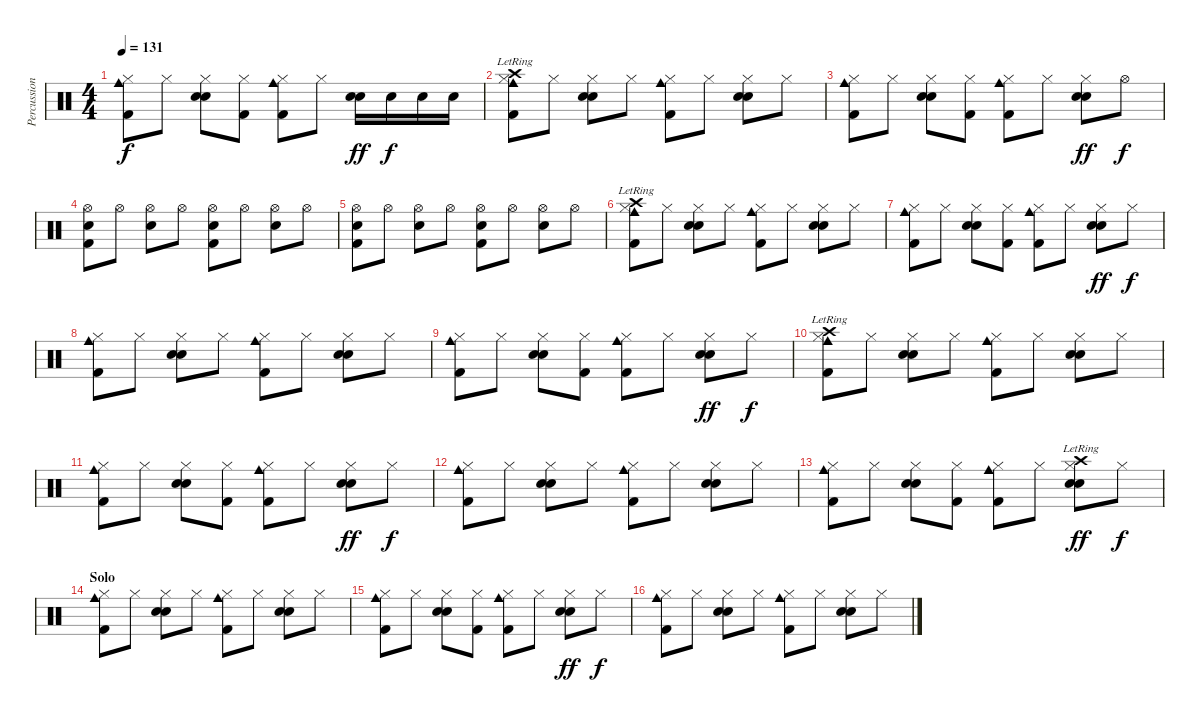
\track ("Percussion" "Percussion") {instrument percussion}
\staff {score}
\articulation defaults
\ts (4 4)
\tempo 131
\clef neutral
\ks c
("Hi-Hat (closed)" "Cowbell medium (hit)" "Kick (hit) 2").8{dy f} "Hi-Hat (closed)".8 ("Hand Clap (hit)" "Hi-Hat (closed)" "Electric Snare (hit)").8 ("Hi-Hat (closed)" "Kick (hit) 2").8 ("Hi-Hat (closed)" "Cowbell medium (hit)" "Kick (hit) 2").8 "Hi-Hat (closed)".8 ("Hand Clap (hit)" "Electric Snare (hit)").16{dy ff} "Electric Snare (hit)".16{dy f} "Electric Snare (hit)".16 "Electric Snare (hit)".16 |
("Crash high (hit)"{lr} "Hi-Hat (closed)" "Cowbell medium (hit)" "Kick (hit) 2").8 "Hi-Hat (closed)".8 ("Hand Clap (hit)" "Hi-Hat (closed)" "Electric Snare (hit)").8 "Hi-Hat (closed)".8 ("Hi-Hat (closed)" "Cowbell medium (hit)" "Kick (hit) 2").8 "Hi-Hat (closed)".8 ("Hand Clap (hit)" "Hi-Hat (closed)" "Electric Snare (hit)").8 "Hi-Hat (closed)".8 |
("Hi-Hat (closed)" "Cowbell medium (hit)" "Kick (hit) 2").8 "Hi-Hat (closed)".8 ("Hand Clap (hit)" "Hi-Hat (closed)" "Electric Snare (hit)").8 ("Hi-Hat (closed)" "Kick (hit) 2").8 ("Hi-Hat (closed)" "Cowbell medium (hit)" "Kick (hit) 2").8 "Hi-Hat (closed)".8 ("Hand Clap (hit)" "Hi-Hat (closed)" "Electric Snare (hit)").8{dy ff} "Hi-Hat (open)".8{dy f} |
("Hi-Hat (open)" "Electric Snare (hit)" "Kick (hit) 2").8 "Hi-Hat (open)".8 ("Hi-Hat (open)" "Electric Snare (hit)").8 "Hi-Hat (open)".8 ("Hi-Hat (open)" "Electric Snare (hit)" "Kick (hit) 2").8 "Hi-Hat (open)".8 ("Hi-Hat (open)" "Electric Snare (hit)").8 "Hi-Hat (open)".8 |
("Hi-Hat (open)" "Electric Snare (hit)" "Kick (hit) 2").8 "Hi-Hat (open)".8 ("Hi-Hat (open)" "Electric Snare (hit)").8 "Hi-Hat (open)".8 ("Hi-Hat (open)" "Electric Snare (hit)" "Kick (hit) 2").8 "Hi-Hat (open)".8 ("Hi-Hat (open)" "Electric Snare (hit)").8 "Hi-Hat (open)".8 |
("Crash high (hit)"{lr} "Hi-Hat (closed)" "Cowbell medium (hit)" "Kick (hit) 2").8 "Hi-Hat (closed)".8 ("Hand Clap (hit)" "Hi-Hat (closed)" "Electric Snare (hit)").8 "Hi-Hat (closed)".8 ("Hi-Hat (closed)" "Cowbell medium (hit)" "Kick (hit) 2").8 "Hi-Hat (closed)".8 ("Hand Clap (hit)" "Hi-Hat (closed)" "Electric Snare (hit)").8 "Hi-Hat (closed)".8 |
("Hi-Hat (closed)" "Cowbell medium (hit)" "Kick (hit) 2").8 "Hi-Hat (closed)".8 ("Hand Clap (hit)" "Hi-Hat (closed)" "Electric Snare (hit)").8 ("Hi-Hat (closed)" "Kick (hit) 2").8 ("Hi-Hat (closed)" "Cowbell medium (hit)" "Kick (hit) 2").8 "Hi-Hat (closed)".8 ("Hand Clap (hit)" "Hi-Hat (closed)" "Electric Snare (hit)").8{dy ff} "Hi-Hat (closed)".8{dy f} |
("Hi-Hat (closed)" "Cowbell medium (hit)" "Kick (hit) 2").8 "Hi-Hat (closed)".8 ("Hand Clap (hit)" "Hi-Hat (closed)" "Electric Snare (hit)").8 "Hi-Hat (closed)".8 ("Hi-Hat (closed)" "Cowbell medium (hit)" "Kick (hit) 2").8 "Hi-Hat (closed)".8 ("Hand Clap (hit)" "Hi-Hat (closed)" "Electric Snare (hit)").8 "Hi-Hat (closed)".8 |
("Hi-Hat (closed)" "Cowbell medium (hit)" "Kick (hit) 2").8 "Hi-Hat (closed)".8 ("Hand Clap (hit)" "Hi-Hat (closed)" "Electric Snare (hit)").8 ("Hi-Hat (closed)" "Kick (hit) 2").8 ("Hi-Hat (closed)" "Cowbell medium (hit)" "Kick (hit) 2").8 "Hi-Hat (closed)".8 ("Hand Clap (hit)" "Hi-Hat (closed)" "Electric Snare (hit)").8{dy ff} "Hi-Hat (closed)".8{dy f} |
("Crash high (hit)"{lr} "Hi-Hat (closed)" "Cowbell medium (hit)" "Kick (hit) 2").8 "Hi-Hat (closed)".8 ("Hand Clap (hit)" "Hi-Hat (closed)" "Electric Snare (hit)").8 "Hi-Hat (closed)".8 ("Hi-Hat (closed)" "Cowbell medium (hit)" "Kick (hit) 2").8 "Hi-Hat (closed)".8 ("Hand Clap (hit)" "Hi-Hat (closed)" "Electric Snare (hit)").8 "Hi-Hat (closed)".8 |
("Hi-Hat (closed)" "Cowbell medium (hit)" "Kick (hit) 2").8 "Hi-Hat (closed)".8 ("Hand Clap (hit)" "Hi-Hat (closed)" "Electric Snare (hit)").8 ("Hi-Hat (closed)" "Kick (hit) 2").8 ("Hi-Hat (closed)" "Cowbell medium (hit)" "Kick (hit) 2").8 "Hi-Hat (closed)".8 ("Hand Clap (hit)" "Hi-Hat (closed)" "Electric Snare (hit)").8{dy ff} "Hi-Hat (closed)".8{dy f} |
("Hi-Hat (closed)" "Cowbell medium (hit)" "Kick (hit) 2").8 "Hi-Hat (closed)".8 ("Hand Clap (hit)" "Hi-Hat (closed)" "Electric Snare (hit)").8 "Hi-Hat (closed)".8 ("Hi-Hat (closed)" "Cowbell medium (hit)" "Kick (hit) 2").8 "Hi-Hat (closed)".8 ("Hand Clap (hit)" "Hi-Hat (closed)" "Electric Snare (hit)").8 "Hi-Hat (closed)".8 |
("Hi-Hat (closed)" "Cowbell medium (hit)" "Kick (hit) 2").8 "Hi-Hat (closed)".8 ("Hand Clap (hit)" "Hi-Hat (closed)" "Electric Snare (hit)").8 ("Hi-Hat (closed)" "Kick (hit) 2").8 ("Hi-Hat (closed)" "Cowbell medium (hit)" "Kick (hit) 2").8 "Hi-Hat (closed)".8 ("Hand Clap (hit)" "Hi-Hat (closed)" "Electric Snare (hit)" "Crash high (hit)"{lr}).8{dy ff} "Hi-Hat (closed)".8{dy f} |
\section ("" "Solo")
("Hi-Hat (closed)" "Cowbell medium (hit)" "Kick (hit) 2").8 "Hi-Hat (closed)".8 ("Hand Clap (hit)" "Hi-Hat (closed)" "Electric Snare (hit)").8 "Hi-Hat (closed)".8 ("Hi-Hat (closed)" "Cowbell medium (hit)" "Kick (hit) 2").8 "Hi-Hat (closed)".8 ("Hand Clap (hit)" "Hi-Hat (closed)" "Electric Snare (hit)").8 "Hi-Hat (closed)".8 |
("Hi-Hat (closed)" "Cowbell medium (hit)" "Kick (hit) 2").8 "Hi-Hat (closed)".8 ("Hand Clap (hit)" "Hi-Hat (closed)" "Electric Snare (hit)").8 ("Hi-Hat (closed)" "Kick (hit) 2").8 ("Hi-Hat (closed)" "Cowbell medium (hit)" "Kick (hit) 2").8 "Hi-Hat (closed)".8 ("Hand Clap (hit)" "Hi-Hat (closed)" "Electric Snare (hit)").8{dy ff} "Hi-Hat (closed)".8{dy f} |
("Hi-Hat (closed)" "Cowbell medium (hit)" "Kick (hit) 2").8 "Hi-Hat (closed)".8 ("Hand Clap (hit)" "Hi-Hat (closed)" "Electric Snare (hit)").8 "Hi-Hat (closed)".8 ("Hi-Hat (closed)" "Cowbell medium (hit)" "Kick (hit) 2").8 "Hi-Hat (closed)".8 ("Hand Clap (hit)" "Hi-Hat (closed)" "Electric Snare (hit)").8 "Hi-Hat (closed)".8
